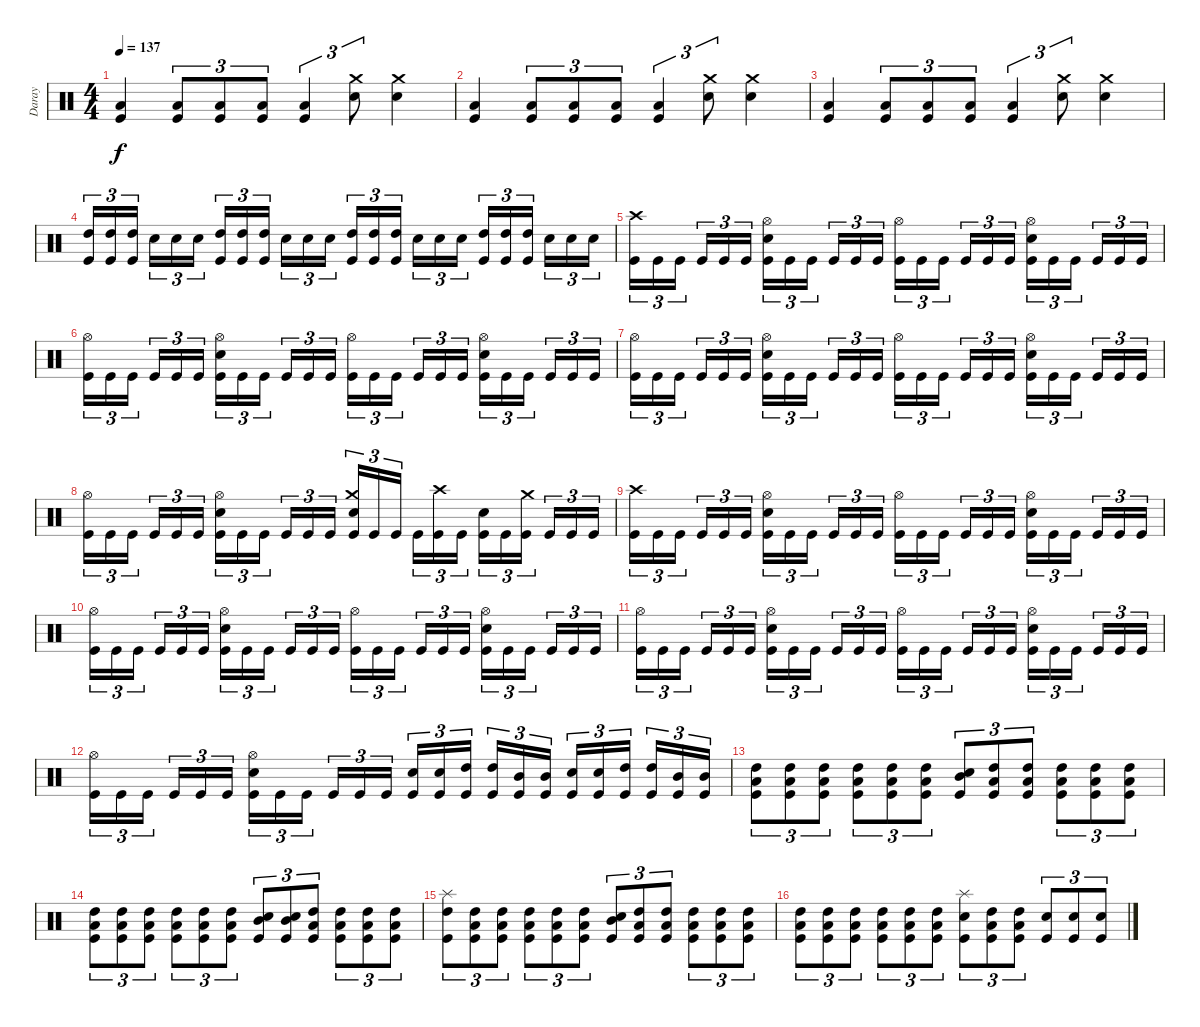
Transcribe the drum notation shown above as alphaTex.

\track ("Daray" "Daray") {instrument percussion}
\staff {score}
\articulation defaults
\ts (4 4)
\tempo 137
\clef neutral
\ks c
("Low Tom (hit)" "Kick (hit)").4{dy f} ("Low Tom (hit)" "Kick (hit)").8{tu (3 2)} ("Low Tom (hit)" "Kick (hit)").8{tu (3 2)} ("Low Tom (hit)" "Kick (hit)").8{tu (3 2)} ("Low Tom (hit)" "Kick (hit)").4{tu (3 2)} ("Crash medium (hit)" "Electric Snare (hit)").8{tu (3 2)} ("Crash medium (hit)" "Electric Snare (hit)").4 |
("Low Tom (hit)" "Kick (hit)").4 ("Low Tom (hit)" "Kick (hit)").8{tu (3 2)} ("Low Tom (hit)" "Kick (hit)").8{tu (3 2)} ("Low Tom (hit)" "Kick (hit)").8{tu (3 2)} ("Low Tom (hit)" "Kick (hit)").4{tu (3 2)} ("Crash medium (hit)" "Electric Snare (hit)").8{tu (3 2)} ("Crash medium (hit)" "Electric Snare (hit)").4 |
("Low Tom (hit)" "Kick (hit)").4 ("Low Tom (hit)" "Kick (hit)").8{tu (3 2)} ("Low Tom (hit)" "Kick (hit)").8{tu (3 2)} ("Low Tom (hit)" "Kick (hit)").8{tu (3 2)} ("Low Tom (hit)" "Kick (hit)").4{tu (3 2)} ("Crash medium (hit)" "Electric Snare (hit)").8{tu (3 2)} ("Crash medium (hit)" "Electric Snare (hit)").4 |
("High Tom (hit)" "Kick (hit)").16{tu (3 2)} ("High Tom (hit)" "Kick (hit)").16{tu (3 2)} ("High Tom (hit)" "Kick (hit)").16{tu (3 2) beam splitsecondary} "Electric Snare (hit)".16{tu (3 2)} "Electric Snare (hit)".16{tu (3 2)} "Electric Snare (hit)".16{tu (3 2)} ("High Tom (hit)" "Kick (hit)").16{tu (3 2)} ("High Tom (hit)" "Kick (hit)").16{tu (3 2)} ("High Tom (hit)" "Kick (hit)").16{tu (3 2) beam splitsecondary} "Electric Snare (hit)".16{tu (3 2)} "Electric Snare (hit)".16{tu (3 2)} "Electric Snare (hit)".16{tu (3 2)} ("High Tom (hit)" "Kick (hit)").16{tu (3 2)} ("High Tom (hit)" "Kick (hit)").16{tu (3 2)} ("High Tom (hit)" "Kick (hit)").16{tu (3 2) beam splitsecondary} "Electric Snare (hit)".16{tu (3 2)} "Electric Snare (hit)".16{tu (3 2)} "Electric Snare (hit)".16{tu (3 2)} ("High Tom (hit)" "Kick (hit)").16{tu (3 2)} ("High Tom (hit)" "Kick (hit)").16{tu (3 2)} ("High Tom (hit)" "Kick (hit)").16{tu (3 2) beam splitsecondary} "Electric Snare (hit)".16{tu (3 2)} "Electric Snare (hit)".16{tu (3 2)} "Electric Snare (hit)".16{tu (3 2)} |
("Crash high (hit)" "Kick (hit)").16{tu (3 2)} "Kick (hit)".16{tu (3 2)} "Kick (hit)".16{tu (3 2) beam splitsecondary} "Kick (hit)".16{tu (3 2)} "Kick (hit)".16{tu (3 2)} "Kick (hit)".16{tu (3 2)} ("Hi-Hat (open)" "Electric Snare (hit)" "Kick (hit)").16{tu (3 2)} "Kick (hit)".16{tu (3 2)} "Kick (hit)".16{tu (3 2) beam splitsecondary} "Kick (hit)".16{tu (3 2)} "Kick (hit)".16{tu (3 2)} "Kick (hit)".16{tu (3 2)} ("Hi-Hat (open)" "Kick (hit)").16{tu (3 2)} "Kick (hit)".16{tu (3 2)} "Kick (hit)".16{tu (3 2) beam splitsecondary} "Kick (hit)".16{tu (3 2)} "Kick (hit)".16{tu (3 2)} "Kick (hit)".16{tu (3 2)} ("Hi-Hat (open)" "Electric Snare (hit)" "Kick (hit)").16{tu (3 2)} "Kick (hit)".16{tu (3 2)} "Kick (hit)".16{tu (3 2) beam splitsecondary} "Kick (hit)".16{tu (3 2)} "Kick (hit)".16{tu (3 2)} "Kick (hit)".16{tu (3 2)} |
("Hi-Hat (open)" "Kick (hit)").16{tu (3 2)} "Kick (hit)".16{tu (3 2)} "Kick (hit)".16{tu (3 2) beam splitsecondary} "Kick (hit)".16{tu (3 2)} "Kick (hit)".16{tu (3 2)} "Kick (hit)".16{tu (3 2)} ("Hi-Hat (open)" "Electric Snare (hit)" "Kick (hit)").16{tu (3 2)} "Kick (hit)".16{tu (3 2)} "Kick (hit)".16{tu (3 2) beam splitsecondary} "Kick (hit)".16{tu (3 2)} "Kick (hit)".16{tu (3 2)} "Kick (hit)".16{tu (3 2)} ("Hi-Hat (open)" "Kick (hit)").16{tu (3 2)} "Kick (hit)".16{tu (3 2)} "Kick (hit)".16{tu (3 2) beam splitsecondary} "Kick (hit)".16{tu (3 2)} "Kick (hit)".16{tu (3 2)} "Kick (hit)".16{tu (3 2)} ("Hi-Hat (open)" "Electric Snare (hit)" "Kick (hit)").16{tu (3 2)} "Kick (hit)".16{tu (3 2)} "Kick (hit)".16{tu (3 2) beam splitsecondary} "Kick (hit)".16{tu (3 2)} "Kick (hit)".16{tu (3 2)} "Kick (hit)".16{tu (3 2)} |
("Hi-Hat (open)" "Kick (hit)").16{tu (3 2)} "Kick (hit)".16{tu (3 2)} "Kick (hit)".16{tu (3 2) beam splitsecondary} "Kick (hit)".16{tu (3 2)} "Kick (hit)".16{tu (3 2)} "Kick (hit)".16{tu (3 2)} ("Hi-Hat (open)" "Electric Snare (hit)" "Kick (hit)").16{tu (3 2)} "Kick (hit)".16{tu (3 2)} "Kick (hit)".16{tu (3 2) beam splitsecondary} "Kick (hit)".16{tu (3 2)} "Kick (hit)".16{tu (3 2)} "Kick (hit)".16{tu (3 2)} ("Hi-Hat (open)" "Kick (hit)").16{tu (3 2)} "Kick (hit)".16{tu (3 2)} "Kick (hit)".16{tu (3 2) beam splitsecondary} "Kick (hit)".16{tu (3 2)} "Kick (hit)".16{tu (3 2)} "Kick (hit)".16{tu (3 2)} ("Hi-Hat (open)" "Electric Snare (hit)" "Kick (hit)").16{tu (3 2)} "Kick (hit)".16{tu (3 2)} "Kick (hit)".16{tu (3 2) beam splitsecondary} "Kick (hit)".16{tu (3 2)} "Kick (hit)".16{tu (3 2)} "Kick (hit)".16{tu (3 2)} |
("Hi-Hat (open)" "Kick (hit)").16{tu (3 2)} "Kick (hit)".16{tu (3 2)} "Kick (hit)".16{tu (3 2) beam splitsecondary} "Kick (hit)".16{tu (3 2)} "Kick (hit)".16{tu (3 2)} "Kick (hit)".16{tu (3 2)} ("Hi-Hat (open)" "Electric Snare (hit)" "Kick (hit)").16{tu (3 2)} "Kick (hit)".16{tu (3 2)} "Kick (hit)".16{tu (3 2) beam splitsecondary} "Kick (hit)".16{tu (3 2)} "Kick (hit)".16{tu (3 2)} "Kick (hit)".16{tu (3 2)} ("Crash medium (hit)" "Electric Snare (hit)" "Kick (hit)").16{tu (3 2)} "Kick (hit)".16{tu (3 2)} "Kick (hit)".16{tu (3 2) beam splitsecondary} "Kick (hit)".16{tu (3 2)} ("Crash high (hit)" "Kick (hit)").16{tu (3 2)} "Kick (hit)".16{tu (3 2)} ("Electric Snare (hit)" "Kick (hit)").16{tu (3 2)} "Kick (hit)".16{tu (3 2)} ("Crash medium (hit)" "Kick (hit)").16{tu (3 2) beam splitsecondary} "Kick (hit)".16{tu (3 2)} "Kick (hit)".16{tu (3 2)} "Kick (hit)".16{tu (3 2)} |
("Crash high (hit)" "Kick (hit)").16{tu (3 2)} "Kick (hit)".16{tu (3 2)} "Kick (hit)".16{tu (3 2) beam splitsecondary} "Kick (hit)".16{tu (3 2)} "Kick (hit)".16{tu (3 2)} "Kick (hit)".16{tu (3 2)} ("Hi-Hat (open)" "Electric Snare (hit)" "Kick (hit)").16{tu (3 2)} "Kick (hit)".16{tu (3 2)} "Kick (hit)".16{tu (3 2) beam splitsecondary} "Kick (hit)".16{tu (3 2)} "Kick (hit)".16{tu (3 2)} "Kick (hit)".16{tu (3 2)} ("Hi-Hat (open)" "Kick (hit)").16{tu (3 2)} "Kick (hit)".16{tu (3 2)} "Kick (hit)".16{tu (3 2) beam splitsecondary} "Kick (hit)".16{tu (3 2)} "Kick (hit)".16{tu (3 2)} "Kick (hit)".16{tu (3 2)} ("Hi-Hat (open)" "Electric Snare (hit)" "Kick (hit)").16{tu (3 2)} "Kick (hit)".16{tu (3 2)} "Kick (hit)".16{tu (3 2) beam splitsecondary} "Kick (hit)".16{tu (3 2)} "Kick (hit)".16{tu (3 2)} "Kick (hit)".16{tu (3 2)} |
("Hi-Hat (open)" "Kick (hit)").16{tu (3 2)} "Kick (hit)".16{tu (3 2)} "Kick (hit)".16{tu (3 2) beam splitsecondary} "Kick (hit)".16{tu (3 2)} "Kick (hit)".16{tu (3 2)} "Kick (hit)".16{tu (3 2)} ("Hi-Hat (open)" "Electric Snare (hit)" "Kick (hit)").16{tu (3 2)} "Kick (hit)".16{tu (3 2)} "Kick (hit)".16{tu (3 2) beam splitsecondary} "Kick (hit)".16{tu (3 2)} "Kick (hit)".16{tu (3 2)} "Kick (hit)".16{tu (3 2)} ("Hi-Hat (open)" "Kick (hit)").16{tu (3 2)} "Kick (hit)".16{tu (3 2)} "Kick (hit)".16{tu (3 2) beam splitsecondary} "Kick (hit)".16{tu (3 2)} "Kick (hit)".16{tu (3 2)} "Kick (hit)".16{tu (3 2)} ("Hi-Hat (open)" "Electric Snare (hit)" "Kick (hit)").16{tu (3 2)} "Kick (hit)".16{tu (3 2)} "Kick (hit)".16{tu (3 2) beam splitsecondary} "Kick (hit)".16{tu (3 2)} "Kick (hit)".16{tu (3 2)} "Kick (hit)".16{tu (3 2)} |
("Hi-Hat (open)" "Kick (hit)").16{tu (3 2)} "Kick (hit)".16{tu (3 2)} "Kick (hit)".16{tu (3 2) beam splitsecondary} "Kick (hit)".16{tu (3 2)} "Kick (hit)".16{tu (3 2)} "Kick (hit)".16{tu (3 2)} ("Hi-Hat (open)" "Electric Snare (hit)" "Kick (hit)").16{tu (3 2)} "Kick (hit)".16{tu (3 2)} "Kick (hit)".16{tu (3 2) beam splitsecondary} "Kick (hit)".16{tu (3 2)} "Kick (hit)".16{tu (3 2)} "Kick (hit)".16{tu (3 2)} ("Hi-Hat (open)" "Kick (hit)").16{tu (3 2)} "Kick (hit)".16{tu (3 2)} "Kick (hit)".16{tu (3 2) beam splitsecondary} "Kick (hit)".16{tu (3 2)} "Kick (hit)".16{tu (3 2)} "Kick (hit)".16{tu (3 2)} ("Hi-Hat (open)" "Electric Snare (hit)" "Kick (hit)").16{tu (3 2)} "Kick (hit)".16{tu (3 2)} "Kick (hit)".16{tu (3 2) beam splitsecondary} "Kick (hit)".16{tu (3 2)} "Kick (hit)".16{tu (3 2)} "Kick (hit)".16{tu (3 2)} |
("Hi-Hat (open)" "Kick (hit)").16{tu (3 2)} "Kick (hit)".16{tu (3 2)} "Kick (hit)".16{tu (3 2) beam splitsecondary} "Kick (hit)".16{tu (3 2)} "Kick (hit)".16{tu (3 2)} "Kick (hit)".16{tu (3 2)} ("Hi-Hat (open)" "Electric Snare (hit)" "Kick (hit)").16{tu (3 2)} "Kick (hit)".16{tu (3 2)} "Kick (hit)".16{tu (3 2) beam splitsecondary} "Kick (hit)".16{tu (3 2)} "Kick (hit)".16{tu (3 2)} "Kick (hit)".16{tu (3 2)} ("Electric Snare (hit)" "Kick (hit)").16{tu (3 2)} ("Electric Snare (hit)" "Kick (hit)").16{tu (3 2)} ("High Tom (hit)" "Kick (hit)").16{tu (3 2) beam splitsecondary} ("High Tom (hit)" "Kick (hit)").16{tu (3 2)} ("Mid Tom (hit)" "Kick (hit)").16{tu (3 2)} ("Mid Tom (hit)" "Kick (hit)").16{tu (3 2)} ("Electric Snare (hit)" "Kick (hit)").16{tu (3 2)} ("Electric Snare (hit)" "Kick (hit)").16{tu (3 2)} ("High Tom (hit)" "Kick (hit)").16{tu (3 2) beam splitsecondary} ("High Tom (hit)" "Kick (hit)").16{tu (3 2)} ("Mid Tom (hit)" "Kick (hit)").16{tu (3 2)} ("Mid Tom (hit)" "Kick (hit)").16{tu (3 2)} |
("High Tom (hit)" "Low Tom (hit)" "Kick (hit)").8{tu (3 2)} ("High Tom (hit)" "Low Tom (hit)" "Kick (hit)").8{tu (3 2)} ("High Tom (hit)" "Low Tom (hit)" "Kick (hit)").8{tu (3 2)} ("High Tom (hit)" "Low Tom (hit)" "Kick (hit)").8{tu (3 2)} ("High Tom (hit)" "Low Tom (hit)" "Kick (hit)").8{tu (3 2)} ("High Tom (hit)" "Low Tom (hit)" "Kick (hit)").8{tu (3 2)} ("Mid Tom (hit)" "Electric Snare (hit)" "Kick (hit)").8{tu (3 2)} ("High Tom (hit)" "Low Tom (hit)" "Kick (hit)").8{tu (3 2)} ("High Tom (hit)" "Low Tom (hit)" "Kick (hit)").8{tu (3 2)} ("High Tom (hit)" "Low Tom (hit)" "Kick (hit)").8{tu (3 2)} ("High Tom (hit)" "Low Tom (hit)" "Kick (hit)").8{tu (3 2)} ("High Tom (hit)" "Low Tom (hit)" "Kick (hit)").8{tu (3 2)} |
("High Tom (hit)" "Low Tom (hit)" "Kick (hit)").8{tu (3 2)} ("High Tom (hit)" "Low Tom (hit)" "Kick (hit)").8{tu (3 2)} ("High Tom (hit)" "Low Tom (hit)" "Kick (hit)").8{tu (3 2)} ("High Tom (hit)" "Low Tom (hit)" "Kick (hit)").8{tu (3 2)} ("High Tom (hit)" "Low Tom (hit)" "Kick (hit)").8{tu (3 2)} ("High Tom (hit)" "Low Tom (hit)" "Kick (hit)").8{tu (3 2)} ("Mid Tom (hit)" "Electric Snare (hit)" "Kick (hit)").8{tu (3 2)} ("Mid Tom (hit)" "Electric Snare (hit)" "Kick (hit)").8{tu (3 2)} ("High Tom (hit)" "Low Tom (hit)" "Kick (hit)").8{tu (3 2)} ("High Tom (hit)" "Low Tom (hit)" "Kick (hit)").8{tu (3 2)} ("High Tom (hit)" "Low Tom (hit)" "Kick (hit)").8{tu (3 2)} ("High Tom (hit)" "Low Tom (hit)" "Kick (hit)").8{tu (3 2)} |
("Splash (hit)" "High Tom (hit)" "Kick (hit)").8{tu (3 2)} ("High Tom (hit)" "Low Tom (hit)" "Kick (hit)").8{tu (3 2)} ("High Tom (hit)" "Low Tom (hit)" "Kick (hit)").8{tu (3 2)} ("High Tom (hit)" "Low Tom (hit)" "Kick (hit)").8{tu (3 2)} ("High Tom (hit)" "Low Tom (hit)" "Kick (hit)").8{tu (3 2)} ("High Tom (hit)" "Low Tom (hit)" "Kick (hit)").8{tu (3 2)} ("Mid Tom (hit)" "Electric Snare (hit)" "Kick (hit)").8{tu (3 2)} ("High Tom (hit)" "Low Tom (hit)" "Kick (hit)").8{tu (3 2)} ("High Tom (hit)" "Low Tom (hit)" "Kick (hit)").8{tu (3 2)} ("High Tom (hit)" "Low Tom (hit)" "Kick (hit)").8{tu (3 2)} ("High Tom (hit)" "Low Tom (hit)" "Kick (hit)").8{tu (3 2)} ("High Tom (hit)" "Low Tom (hit)" "Kick (hit)").8{tu (3 2)} |
("High Tom (hit)" "Low Tom (hit)" "Kick (hit)").8{tu (3 2)} ("High Tom (hit)" "Low Tom (hit)" "Kick (hit)").8{tu (3 2)} ("High Tom (hit)" "Low Tom (hit)" "Kick (hit)").8{tu (3 2)} ("High Tom (hit)" "Low Tom (hit)" "Kick (hit)").8{tu (3 2)} ("High Tom (hit)" "Low Tom (hit)" "Kick (hit)").8{tu (3 2)} ("High Tom (hit)" "Low Tom (hit)" "Kick (hit)").8{tu (3 2)} ("Splash (hit)" "Electric Snare (hit)" "Kick (hit)").8{tu (3 2)} ("High Tom (hit)" "Low Tom (hit)" "Kick (hit)").8{tu (3 2)} ("High Tom (hit)" "Low Tom (hit)" "Kick (hit)").8{tu (3 2)} ("Electric Snare (hit)" "Kick (hit)").8{tu (3 2)} ("Electric Snare (hit)" "Kick (hit)").8{tu (3 2)} ("Electric Snare (hit)" "Kick (hit)").8{tu (3 2)}
